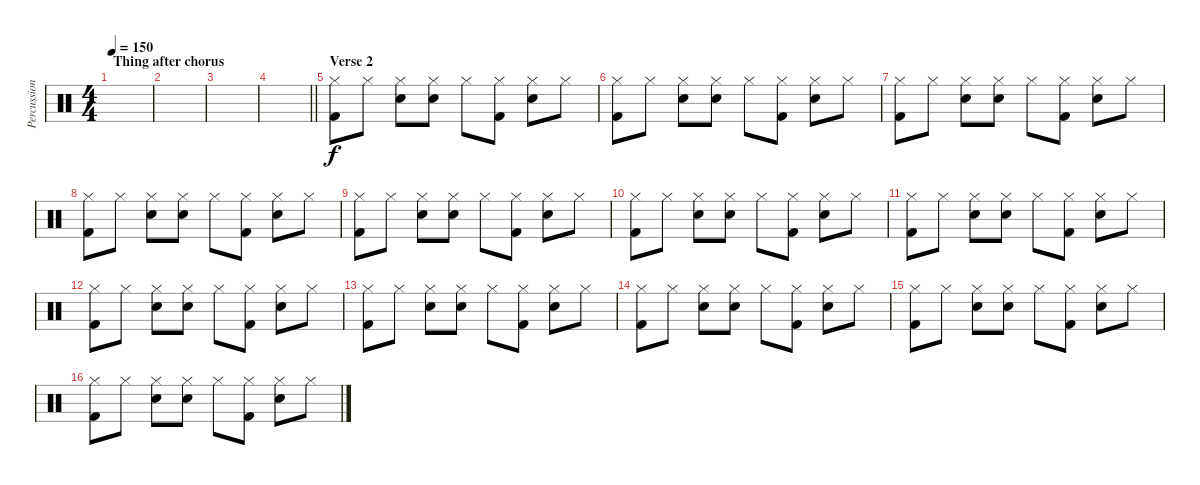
\track ("Percussion" "Percussion") {instrument percussion}
\staff {score}
\articulation defaults
\ts (4 4)
\section ("" "Thing after chorus")
\tempo 150
\clef neutral
\ks c
|
|
|
\barLineRight lightlight
|
\section ("" "Verse 2")
("Hi-Hat (closed)" "Kick (hit) 2").8 "Hi-Hat (closed)".8 ("Hi-Hat (closed)" "Snare (hit) 2").8 ("Hi-Hat (closed)" "Snare (hit) 2").8 "Hi-Hat (closed)".8 ("Hi-Hat (closed)" "Kick (hit) 2").8 ("Hi-Hat (closed)" "Snare (hit) 2").8 "Hi-Hat (closed)".8 |
("Hi-Hat (closed)" "Kick (hit) 2").8 "Hi-Hat (closed)".8 ("Hi-Hat (closed)" "Snare (hit) 2").8 ("Hi-Hat (closed)" "Snare (hit) 2").8 "Hi-Hat (closed)".8 ("Hi-Hat (closed)" "Kick (hit) 2").8 ("Hi-Hat (closed)" "Snare (hit) 2").8 "Hi-Hat (closed)".8 |
("Hi-Hat (closed)" "Kick (hit) 2").8 "Hi-Hat (closed)".8 ("Hi-Hat (closed)" "Snare (hit) 2").8 ("Hi-Hat (closed)" "Snare (hit) 2").8 "Hi-Hat (closed)".8 ("Hi-Hat (closed)" "Kick (hit) 2").8 ("Hi-Hat (closed)" "Snare (hit) 2").8 "Hi-Hat (closed)".8 |
("Hi-Hat (closed)" "Kick (hit) 2").8 "Hi-Hat (closed)".8 ("Hi-Hat (closed)" "Snare (hit) 2").8 ("Hi-Hat (closed)" "Snare (hit) 2").8 "Hi-Hat (closed)".8 ("Hi-Hat (closed)" "Kick (hit) 2").8 ("Hi-Hat (closed)" "Snare (hit) 2").8 "Hi-Hat (closed)".8 |
("Hi-Hat (closed)" "Kick (hit) 2").8 "Hi-Hat (closed)".8 ("Hi-Hat (closed)" "Snare (hit) 2").8 ("Hi-Hat (closed)" "Snare (hit) 2").8 "Hi-Hat (closed)".8 ("Hi-Hat (closed)" "Kick (hit) 2").8 ("Hi-Hat (closed)" "Snare (hit) 2").8 "Hi-Hat (closed)".8 |
("Hi-Hat (closed)" "Kick (hit) 2").8 "Hi-Hat (closed)".8 ("Hi-Hat (closed)" "Snare (hit) 2").8 ("Hi-Hat (closed)" "Snare (hit) 2").8 "Hi-Hat (closed)".8 ("Hi-Hat (closed)" "Kick (hit) 2").8 ("Hi-Hat (closed)" "Snare (hit) 2").8 "Hi-Hat (closed)".8 |
("Hi-Hat (closed)" "Kick (hit) 2").8 "Hi-Hat (closed)".8 ("Hi-Hat (closed)" "Snare (hit) 2").8 ("Hi-Hat (closed)" "Snare (hit) 2").8 "Hi-Hat (closed)".8 ("Hi-Hat (closed)" "Kick (hit) 2").8 ("Hi-Hat (closed)" "Snare (hit) 2").8 "Hi-Hat (closed)".8 |
("Hi-Hat (closed)" "Kick (hit) 2").8 "Hi-Hat (closed)".8 ("Hi-Hat (closed)" "Snare (hit) 2").8 ("Hi-Hat (closed)" "Snare (hit) 2").8 "Hi-Hat (closed)".8 ("Hi-Hat (closed)" "Kick (hit) 2").8 ("Hi-Hat (closed)" "Snare (hit) 2").8 "Hi-Hat (closed)".8 |
("Hi-Hat (closed)" "Kick (hit) 2").8 "Hi-Hat (closed)".8 ("Hi-Hat (closed)" "Snare (hit) 2").8 ("Hi-Hat (closed)" "Snare (hit) 2").8 "Hi-Hat (closed)".8 ("Hi-Hat (closed)" "Kick (hit) 2").8 ("Hi-Hat (closed)" "Snare (hit) 2").8 "Hi-Hat (closed)".8 |
("Hi-Hat (closed)" "Kick (hit) 2").8 "Hi-Hat (closed)".8 ("Hi-Hat (closed)" "Snare (hit) 2").8 ("Hi-Hat (closed)" "Snare (hit) 2").8 "Hi-Hat (closed)".8 ("Hi-Hat (closed)" "Kick (hit) 2").8 ("Hi-Hat (closed)" "Snare (hit) 2").8 "Hi-Hat (closed)".8 |
("Hi-Hat (closed)" "Kick (hit) 2").8 "Hi-Hat (closed)".8 ("Hi-Hat (closed)" "Snare (hit) 2").8 ("Hi-Hat (closed)" "Snare (hit) 2").8 "Hi-Hat (closed)".8 ("Hi-Hat (closed)" "Kick (hit) 2").8 ("Hi-Hat (closed)" "Snare (hit) 2").8 "Hi-Hat (closed)".8 |
("Hi-Hat (closed)" "Kick (hit) 2").8 "Hi-Hat (closed)".8 ("Hi-Hat (closed)" "Snare (hit) 2").8 ("Hi-Hat (closed)" "Snare (hit) 2").8 "Hi-Hat (closed)".8 ("Hi-Hat (closed)" "Kick (hit) 2").8 ("Hi-Hat (closed)" "Snare (hit) 2").8 "Hi-Hat (closed)".8
